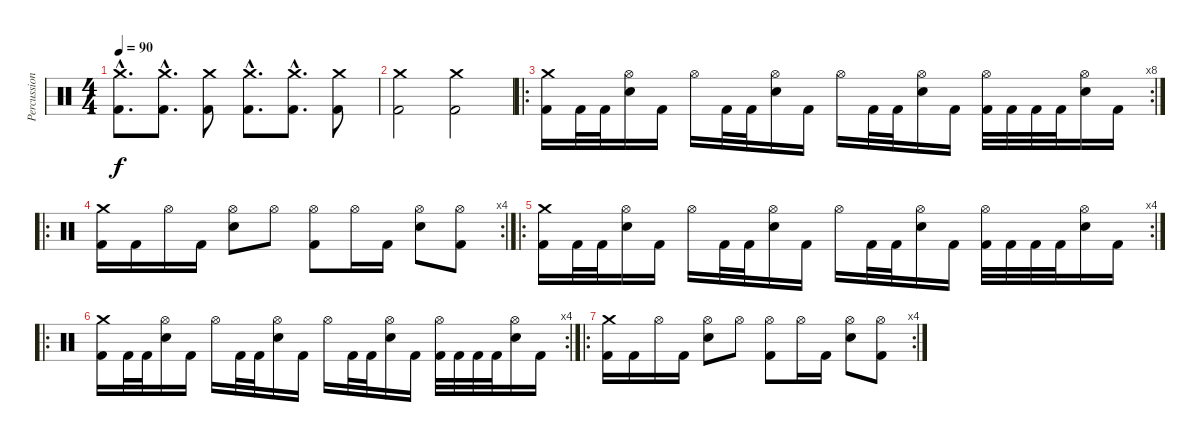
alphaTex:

\track ("Percussion" "Percussion") {instrument percussion}
\staff {score}
\articulation defaults
\ts (4 4)
\tempo 90
\clef neutral
\ks c
("Crash medium (hit)"{hac} "Kick (hit) 2"{hac}).8{d dy f} ("Crash medium (hit)"{hac} "Kick (hit) 2"{hac}).8{d} ("Crash medium (hit)" "Kick (hit) 2").8 ("Crash medium (hit)"{hac} "Kick (hit) 2"{hac}).8{d} ("Crash medium (hit)"{hac} "Kick (hit) 2"{hac}).8{d} ("Crash medium (hit)" "Kick (hit) 2").8 |
("Crash medium (hit)" "Kick (hit) 2").2 ("Crash medium (hit)" "Kick (hit) 2").2 |
\ro
\rc 8
("Crash medium (hit)" "Kick (hit) 2").16 "Kick (hit) 2".32 "Kick (hit) 2".32 ("Hi-Hat (open)" "Electric Snare (hit)").16 "Kick (hit) 2".16 "Hi-Hat (open)".16 "Kick (hit) 2".32 "Kick (hit) 2".32 ("Hi-Hat (open)" "Electric Snare (hit)").16 "Kick (hit) 2".16 "Hi-Hat (open)".16 "Kick (hit) 2".32 "Kick (hit) 2".32 ("Hi-Hat (open)" "Electric Snare (hit)").16 "Kick (hit) 2".16 ("Hi-Hat (open)" "Kick (hit) 2").32 "Kick (hit) 2".32 "Kick (hit) 2".32 "Kick (hit) 2".32 ("Hi-Hat (open)" "Electric Snare (hit)").16 "Kick (hit) 2".16 |
\ro
\rc 4
("Crash medium (hit)" "Kick (hit) 2").16 "Kick (hit) 2".16 "Hi-Hat (open)".16 "Kick (hit) 2".16 ("Hi-Hat (open)" "Electric Snare (hit)").8 "Hi-Hat (open)".8 ("Hi-Hat (open)" "Kick (hit) 2").8 "Hi-Hat (open)".16 "Kick (hit) 2".16 ("Hi-Hat (open)" "Electric Snare (hit)").8 ("Hi-Hat (open)" "Kick (hit) 2").8 |
\ro
\rc 4
("Crash medium (hit)" "Kick (hit) 2").16 "Kick (hit) 2".32 "Kick (hit) 2".32 ("Hi-Hat (open)" "Electric Snare (hit)").16 "Kick (hit) 2".16 "Hi-Hat (open)".16 "Kick (hit) 2".32 "Kick (hit) 2".32 ("Hi-Hat (open)" "Electric Snare (hit)").16 "Kick (hit) 2".16 "Hi-Hat (open)".16 "Kick (hit) 2".32 "Kick (hit) 2".32 ("Hi-Hat (open)" "Electric Snare (hit)").16 "Kick (hit) 2".16 ("Hi-Hat (open)" "Kick (hit) 2").32 "Kick (hit) 2".32 "Kick (hit) 2".32 "Kick (hit) 2".32 ("Hi-Hat (open)" "Electric Snare (hit)").16 "Kick (hit) 2".16 |
\ro
\rc 4
("Crash medium (hit)" "Kick (hit) 2").16 "Kick (hit) 2".32 "Kick (hit) 2".32 ("Hi-Hat (open)" "Electric Snare (hit)").16 "Kick (hit) 2".16 "Hi-Hat (open)".16 "Kick (hit) 2".32 "Kick (hit) 2".32 ("Hi-Hat (open)" "Electric Snare (hit)").16 "Kick (hit) 2".16 "Hi-Hat (open)".16 "Kick (hit) 2".32 "Kick (hit) 2".32 ("Hi-Hat (open)" "Electric Snare (hit)").16 "Kick (hit) 2".16 ("Hi-Hat (open)" "Kick (hit) 2").32 "Kick (hit) 2".32 "Kick (hit) 2".32 "Kick (hit) 2".32 ("Hi-Hat (open)" "Electric Snare (hit)").16 "Kick (hit) 2".16 |
\ro
\rc 4
("Crash medium (hit)" "Kick (hit) 2").16 "Kick (hit) 2".16 "Hi-Hat (open)".16 "Kick (hit) 2".16 ("Hi-Hat (open)" "Electric Snare (hit)").8 "Hi-Hat (open)".8 ("Hi-Hat (open)" "Kick (hit) 2").8 "Hi-Hat (open)".16 "Kick (hit) 2".16 ("Hi-Hat (open)" "Electric Snare (hit)").8 ("Hi-Hat (open)" "Kick (hit) 2").8
